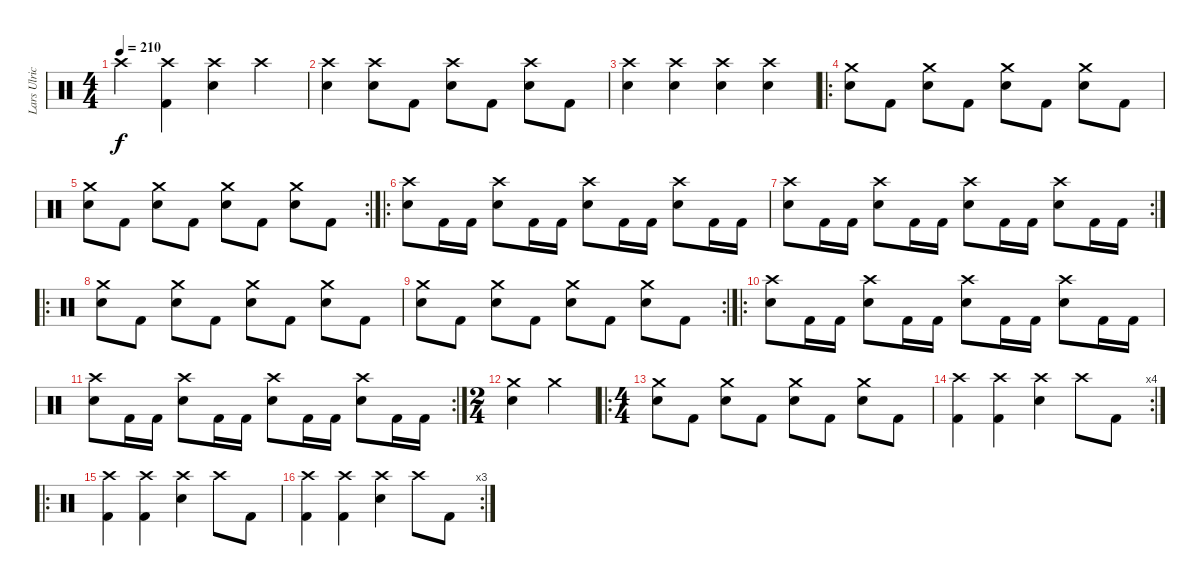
\track ("Lars Ulrich" "Lars Ulric") {instrument percussion}
\staff {score}
\articulation defaults
\ts (4 4)
\tempo 210
\clef neutral
\ks c "Crash high (hit)".4{dy f}
("Crash high (hit)" "Kick (hit) 2").4 ("Crash high (hit)" "Snare (hit) 2").4 "Crash high (hit)".4 |
("Crash high (hit)" "Snare (hit) 2").4 ("Crash high (hit)" "Snare (hit) 2").8 "Kick (hit) 2".8 ("Crash high (hit)" "Snare (hit) 2").8 "Kick (hit) 2".8 ("Crash high (hit)" "Snare (hit) 2").8 "Kick (hit) 2".8 |
("Crash high (hit)" "Snare (hit) 2").4 ("Crash high (hit)" "Snare (hit) 2").4 ("Crash high (hit)" "Snare (hit) 2").4 ("Crash high (hit)" "Snare (hit) 2").4 |
\ro
("Crash medium (hit)" "Snare (hit) 2").8 "Kick (hit) 2".8 ("Crash medium (hit)" "Snare (hit) 2").8 "Kick (hit) 2".8 ("Crash medium (hit)" "Snare (hit) 2").8 "Kick (hit) 2".8 ("Crash medium (hit)" "Snare (hit) 2").8 "Kick (hit) 2".8 |
\rc 2
("Crash medium (hit)" "Snare (hit) 2").8 "Kick (hit) 2".8 ("Crash medium (hit)" "Snare (hit) 2").8 "Kick (hit) 2".8 ("Crash medium (hit)" "Snare (hit) 2").8 "Kick (hit) 2".8 ("Crash medium (hit)" "Snare (hit) 2").8 "Kick (hit) 2".8 |
\ro
("Snare (hit) 2" "Crash high (hit)").8 "Kick (hit) 2".16 "Kick (hit) 2".16 ("Snare (hit) 2" "Crash high (hit)").8 "Kick (hit) 2".16 "Kick (hit) 2".16 ("Snare (hit) 2" "Crash high (hit)").8 "Kick (hit) 2".16 "Kick (hit) 2".16 ("Snare (hit) 2" "Crash high (hit)").8 "Kick (hit) 2".16 "Kick (hit) 2".16 |
\rc 2
("Snare (hit) 2" "Crash high (hit)").8 "Kick (hit) 2".16 "Kick (hit) 2".16 ("Snare (hit) 2" "Crash high (hit)").8 "Kick (hit) 2".16 "Kick (hit) 2".16 ("Snare (hit) 2" "Crash high (hit)").8 "Kick (hit) 2".16 "Kick (hit) 2".16 ("Snare (hit) 2" "Crash high (hit)").8 "Kick (hit) 2".16 "Kick (hit) 2".16 |
\ro
("Crash medium (hit)" "Snare (hit) 2").8 "Kick (hit) 2".8 ("Crash medium (hit)" "Snare (hit) 2").8 "Kick (hit) 2".8 ("Crash medium (hit)" "Snare (hit) 2").8 "Kick (hit) 2".8 ("Crash medium (hit)" "Snare (hit) 2").8 "Kick (hit) 2".8 |
\rc 2
("Crash medium (hit)" "Snare (hit) 2").8 "Kick (hit) 2".8 ("Crash medium (hit)" "Snare (hit) 2").8 "Kick (hit) 2".8 ("Crash medium (hit)" "Snare (hit) 2").8 "Kick (hit) 2".8 ("Crash medium (hit)" "Snare (hit) 2").8 "Kick (hit) 2".8 |
\ro
("Snare (hit) 2" "Crash high (hit)").8 "Kick (hit) 2".16 "Kick (hit) 2".16 ("Snare (hit) 2" "Crash high (hit)").8 "Kick (hit) 2".16 "Kick (hit) 2".16 ("Snare (hit) 2" "Crash high (hit)").8 "Kick (hit) 2".16 "Kick (hit) 2".16 ("Snare (hit) 2" "Crash high (hit)").8 "Kick (hit) 2".16 "Kick (hit) 2".16 |
\rc 2
("Snare (hit) 2" "Crash high (hit)").8 "Kick (hit) 2".16 "Kick (hit) 2".16 ("Snare (hit) 2" "Crash high (hit)").8 "Kick (hit) 2".16 "Kick (hit) 2".16 ("Snare (hit) 2" "Crash high (hit)").8 "Kick (hit) 2".16 "Kick (hit) 2".16 ("Snare (hit) 2" "Crash high (hit)").8 "Kick (hit) 2".16 "Kick (hit) 2".16 |
\ts (2 4)
("Crash medium (hit)" "Snare (hit) 2").4 "Crash medium (hit)".4 |
\ro
\ts (4 4)
("Crash medium (hit)" "Snare (hit) 2").8 "Kick (hit) 2".8 ("Crash medium (hit)" "Snare (hit) 2").8 "Kick (hit) 2".8 ("Crash medium (hit)" "Snare (hit) 2").8 "Kick (hit) 2".8 ("Crash medium (hit)" "Snare (hit) 2").8 "Kick (hit) 2".8 |
\rc 4
("Crash high (hit)" "Kick (hit) 2").4 ("Crash high (hit)" "Kick (hit) 2").4 ("Crash high (hit)" "Snare (hit) 2").4 "Crash high (hit)".8 "Kick (hit) 2".8 |
\ro
("Crash high (hit)" "Kick (hit) 2").4 ("Crash high (hit)" "Kick (hit) 2").4 ("Crash high (hit)" "Snare (hit) 2").4 "Crash high (hit)".8 "Kick (hit) 2".8 |
\rc 3
("Crash high (hit)" "Kick (hit) 2").4 ("Crash high (hit)" "Kick (hit) 2").4 ("Crash high (hit)" "Snare (hit) 2").4 "Crash high (hit)".8 "Kick (hit) 2".8
